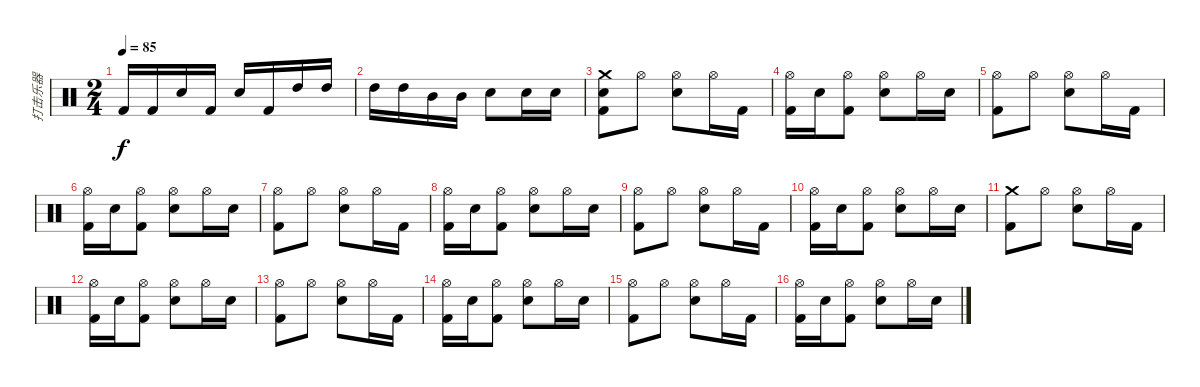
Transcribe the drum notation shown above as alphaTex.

\track ("打击乐器" "打击乐器") {instrument percussion}
\staff {score}
\articulation defaults
\ts (2 4)
\tempo 85
\clef neutral
\ks c "Kick (hit) 2".16{dy f} "Kick (hit) 2".16 "Electric Snare (hit)".16 "Kick (hit) 2".16 "Electric Snare (hit)".16 "Kick (hit) 2".16 "High Tom (hit)".16 "High Tom (hit)".16
|
"High Tom (hit)".16 "High Tom (hit)".16 "Mid Tom (hit)".16 "Mid Tom (hit)".16 "Electric Snare (hit)".8 "Electric Snare (hit)".16 "Electric Snare (hit)".16 |
("Crash medium (hit)" "Electric Snare (hit)" "Kick (hit) 2").8 "Hi-Hat (open)".8 ("Hi-Hat (open)" "Electric Snare (hit)").8 "Hi-Hat (open)".16 "Kick (hit) 2".16 |
("Hi-Hat (open)" "Kick (hit) 2").16 "Electric Snare (hit)".16 ("Hi-Hat (open)" "Kick (hit) 2").8 ("Hi-Hat (open)" "Electric Snare (hit)").8 "Hi-Hat (open)".16 "Electric Snare (hit)".16 |
("Hi-Hat (open)" "Kick (hit) 2").8 "Hi-Hat (open)".8 ("Hi-Hat (open)" "Electric Snare (hit)").8 "Hi-Hat (open)".16 "Kick (hit) 2".16 |
("Hi-Hat (open)" "Kick (hit) 2").16 "Electric Snare (hit)".16 ("Hi-Hat (open)" "Kick (hit) 2").8 ("Hi-Hat (open)" "Electric Snare (hit)").8 "Hi-Hat (open)".16 "Electric Snare (hit)".16 |
("Hi-Hat (open)" "Kick (hit) 2").8 "Hi-Hat (open)".8 ("Hi-Hat (open)" "Electric Snare (hit)").8 "Hi-Hat (open)".16 "Kick (hit) 2".16 |
("Hi-Hat (open)" "Kick (hit) 2").16 "Electric Snare (hit)".16 ("Hi-Hat (open)" "Kick (hit) 2").8 ("Hi-Hat (open)" "Electric Snare (hit)").8 "Hi-Hat (open)".16 "Electric Snare (hit)".16 |
("Hi-Hat (open)" "Kick (hit) 2").8 "Hi-Hat (open)".8 ("Hi-Hat (open)" "Electric Snare (hit)").8 "Hi-Hat (open)".16 "Kick (hit) 2".16 |
("Hi-Hat (open)" "Kick (hit) 2").16 "Electric Snare (hit)".16 ("Hi-Hat (open)" "Kick (hit) 2").8 ("Hi-Hat (open)" "Electric Snare (hit)").8 "Hi-Hat (open)".16 "Electric Snare (hit)".16 |
("Crash medium (hit)" "Kick (hit) 2").8 "Hi-Hat (open)".8 ("Hi-Hat (open)" "Electric Snare (hit)").8 "Hi-Hat (open)".16 "Kick (hit) 2".16 |
("Hi-Hat (open)" "Kick (hit) 2").16 "Electric Snare (hit)".16 ("Hi-Hat (open)" "Kick (hit) 2").8 ("Hi-Hat (open)" "Electric Snare (hit)").8 "Hi-Hat (open)".16 "Electric Snare (hit)".16 |
("Hi-Hat (open)" "Kick (hit) 2").8 "Hi-Hat (open)".8 ("Hi-Hat (open)" "Electric Snare (hit)").8 "Hi-Hat (open)".16 "Kick (hit) 2".16 |
("Hi-Hat (open)" "Kick (hit) 2").16 "Electric Snare (hit)".16 ("Hi-Hat (open)" "Kick (hit) 2").8 ("Hi-Hat (open)" "Electric Snare (hit)").8 "Hi-Hat (open)".16 "Electric Snare (hit)".16 |
("Hi-Hat (open)" "Kick (hit) 2").8 "Hi-Hat (open)".8 ("Hi-Hat (open)" "Electric Snare (hit)").8 "Hi-Hat (open)".16 "Kick (hit) 2".16 |
("Hi-Hat (open)" "Kick (hit) 2").16 "Electric Snare (hit)".16 ("Hi-Hat (open)" "Kick (hit) 2").8 ("Hi-Hat (open)" "Electric Snare (hit)").8 "Hi-Hat (open)".16 "Electric Snare (hit)".16
